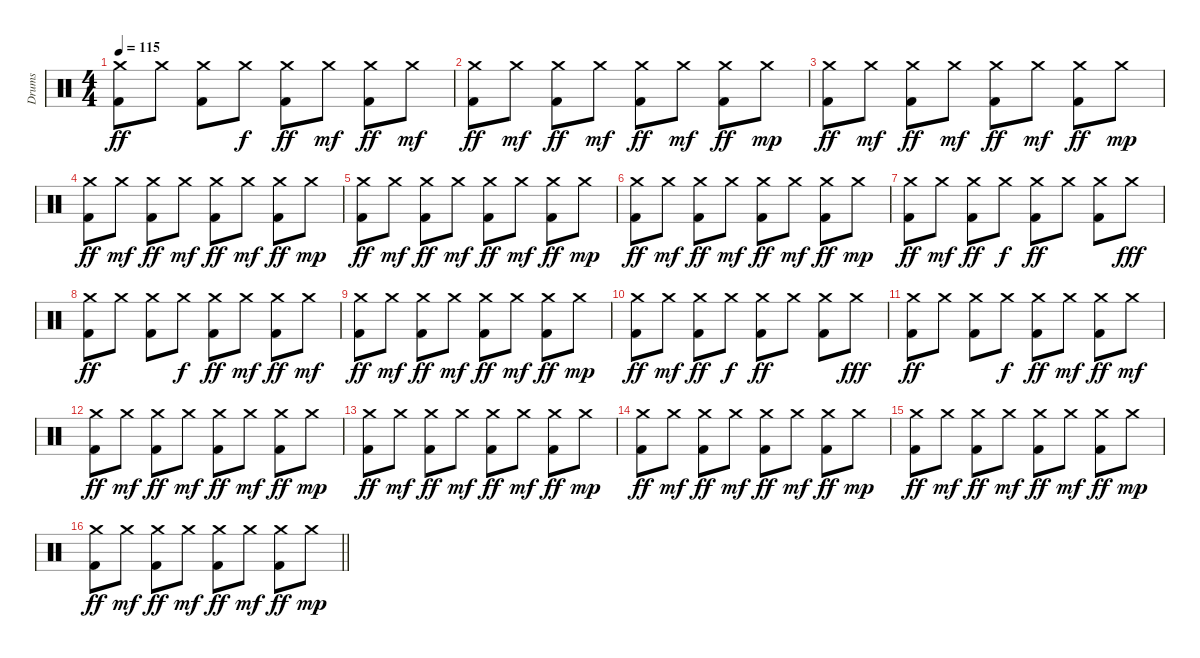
\track ("Drums" "Drums") {instrument percussion}
\staff {score}
\articulation defaults
\ts (4 4)
\tempo 115
\clef neutral
\ks c
("Crash medium (hit)" "Kick (hit) 2").8{dy ff} "Crash medium (hit)".8 ("Crash medium (hit)" "Kick (hit) 2").8 "Crash medium (hit)".8{dy f} ("Crash medium (hit)" "Kick (hit) 2").8{dy ff} "Crash medium (hit)".8{dy mf} ("Crash medium (hit)" "Kick (hit) 2").8{dy ff} "Crash medium (hit)".8{dy mf} |
("Crash medium (hit)" "Kick (hit) 2").8{dy ff} "Crash medium (hit)".8{dy mf} ("Crash medium (hit)" "Kick (hit) 2").8{dy ff} "Crash medium (hit)".8{dy mf} ("Crash medium (hit)" "Kick (hit) 2").8{dy ff} "Crash medium (hit)".8{dy mf} ("Crash medium (hit)" "Kick (hit) 2").8{dy ff} "Crash medium (hit)".8{dy mp} |
("Crash medium (hit)" "Kick (hit) 2").8{dy ff} "Crash medium (hit)".8{dy mf} ("Crash medium (hit)" "Kick (hit) 2").8{dy ff} "Crash medium (hit)".8{dy mf} ("Crash medium (hit)" "Kick (hit) 2").8{dy ff} "Crash medium (hit)".8{dy mf} ("Crash medium (hit)" "Kick (hit) 2").8{dy ff} "Crash medium (hit)".8{dy mp} |
("Crash medium (hit)" "Kick (hit) 2").8{dy ff} "Crash medium (hit)".8{dy mf} ("Crash medium (hit)" "Kick (hit) 2").8{dy ff} "Crash medium (hit)".8{dy mf} ("Crash medium (hit)" "Kick (hit) 2").8{dy ff} "Crash medium (hit)".8{dy mf} ("Crash medium (hit)" "Kick (hit) 2").8{dy ff} "Crash medium (hit)".8{dy mp} |
("Crash medium (hit)" "Kick (hit) 2").8{dy ff} "Crash medium (hit)".8{dy mf} ("Crash medium (hit)" "Kick (hit) 2").8{dy ff} "Crash medium (hit)".8{dy mf} ("Crash medium (hit)" "Kick (hit) 2").8{dy ff} "Crash medium (hit)".8{dy mf} ("Crash medium (hit)" "Kick (hit) 2").8{dy ff} "Crash medium (hit)".8{dy mp} |
("Crash medium (hit)" "Kick (hit) 2").8{dy ff} "Crash medium (hit)".8{dy mf} ("Crash medium (hit)" "Kick (hit) 2").8{dy ff} "Crash medium (hit)".8{dy mf} ("Crash medium (hit)" "Kick (hit) 2").8{dy ff} "Crash medium (hit)".8{dy mf} ("Crash medium (hit)" "Kick (hit) 2").8{dy ff} "Crash medium (hit)".8{dy mp} |
("Crash medium (hit)" "Kick (hit) 2").8{dy ff} "Crash medium (hit)".8{dy mf} ("Crash medium (hit)" "Kick (hit) 2").8{dy ff} "Crash medium (hit)".8{dy f} ("Crash medium (hit)" "Kick (hit) 2").8{dy ff} "Crash medium (hit)".8 ("Crash medium (hit)" "Kick (hit) 2").8 "Crash medium (hit)".8{dy fff} |
("Crash medium (hit)" "Kick (hit) 2").8{dy ff} "Crash medium (hit)".8 ("Crash medium (hit)" "Kick (hit) 2").8 "Crash medium (hit)".8{dy f} ("Crash medium (hit)" "Kick (hit) 2").8{dy ff} "Crash medium (hit)".8{dy mf} ("Crash medium (hit)" "Kick (hit) 2").8{dy ff} "Crash medium (hit)".8{dy mf} |
("Crash medium (hit)" "Kick (hit) 2").8{dy ff} "Crash medium (hit)".8{dy mf} ("Crash medium (hit)" "Kick (hit) 2").8{dy ff} "Crash medium (hit)".8{dy mf} ("Crash medium (hit)" "Kick (hit) 2").8{dy ff} "Crash medium (hit)".8{dy mf} ("Crash medium (hit)" "Kick (hit) 2").8{dy ff} "Crash medium (hit)".8{dy mp} |
("Crash medium (hit)" "Kick (hit) 2").8{dy ff} "Crash medium (hit)".8{dy mf} ("Crash medium (hit)" "Kick (hit) 2").8{dy ff} "Crash medium (hit)".8{dy f} ("Crash medium (hit)" "Kick (hit) 2").8{dy ff} "Crash medium (hit)".8 ("Crash medium (hit)" "Kick (hit) 2").8 "Crash medium (hit)".8{dy fff} |
("Crash medium (hit)" "Kick (hit) 2").8{dy ff} "Crash medium (hit)".8 ("Crash medium (hit)" "Kick (hit) 2").8 "Crash medium (hit)".8{dy f} ("Crash medium (hit)" "Kick (hit) 2").8{dy ff} "Crash medium (hit)".8{dy mf} ("Crash medium (hit)" "Kick (hit) 2").8{dy ff} "Crash medium (hit)".8{dy mf} |
("Crash medium (hit)" "Kick (hit) 2").8{dy ff} "Crash medium (hit)".8{dy mf} ("Crash medium (hit)" "Kick (hit) 2").8{dy ff} "Crash medium (hit)".8{dy mf} ("Crash medium (hit)" "Kick (hit) 2").8{dy ff} "Crash medium (hit)".8{dy mf} ("Crash medium (hit)" "Kick (hit) 2").8{dy ff} "Crash medium (hit)".8{dy mp} |
("Crash medium (hit)" "Kick (hit) 2").8{dy ff} "Crash medium (hit)".8{dy mf} ("Crash medium (hit)" "Kick (hit) 2").8{dy ff} "Crash medium (hit)".8{dy mf} ("Crash medium (hit)" "Kick (hit) 2").8{dy ff} "Crash medium (hit)".8{dy mf} ("Crash medium (hit)" "Kick (hit) 2").8{dy ff} "Crash medium (hit)".8{dy mp} |
("Crash medium (hit)" "Kick (hit) 2").8{dy ff} "Crash medium (hit)".8{dy mf} ("Crash medium (hit)" "Kick (hit) 2").8{dy ff} "Crash medium (hit)".8{dy mf} ("Crash medium (hit)" "Kick (hit) 2").8{dy ff} "Crash medium (hit)".8{dy mf} ("Crash medium (hit)" "Kick (hit) 2").8{dy ff} "Crash medium (hit)".8{dy mp} |
("Crash medium (hit)" "Kick (hit) 2").8{dy ff} "Crash medium (hit)".8{dy mf} ("Crash medium (hit)" "Kick (hit) 2").8{dy ff} "Crash medium (hit)".8{dy mf} ("Crash medium (hit)" "Kick (hit) 2").8{dy ff} "Crash medium (hit)".8{dy mf} ("Crash medium (hit)" "Kick (hit) 2").8{dy ff} "Crash medium (hit)".8{dy mp} |
\barLineRight lightlight
("Crash medium (hit)" "Kick (hit) 2").8{dy ff} "Crash medium (hit)".8{dy mf} ("Crash medium (hit)" "Kick (hit) 2").8{dy ff} "Crash medium (hit)".8{dy mf} ("Crash medium (hit)" "Kick (hit) 2").8{dy ff} "Crash medium (hit)".8{dy mf} ("Crash medium (hit)" "Kick (hit) 2").8{dy ff} "Crash medium (hit)".8{dy mp}
